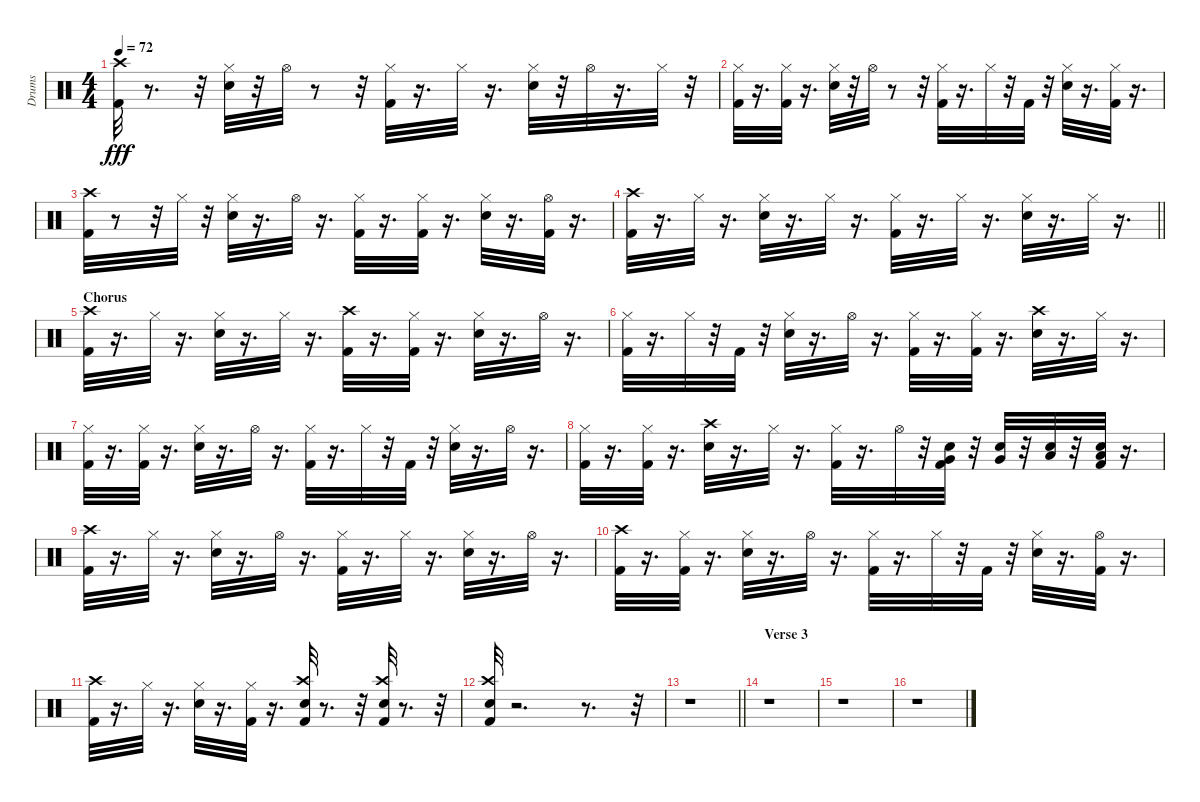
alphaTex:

\track ("Drums" "Drums") {instrument percussion}
\staff {score}
\articulation defaults
\ts (4 4)
\tempo 72
\clef neutral
\ks c
("Kick (hit) 2" "Crash high (hit)").32{dy fff} r.8{d} r.32 ("Hi-Hat (closed)" "Snare (hit) 2").32 r.32 "Hi-Hat (open)".32 r.8 r.32 ("Kick (hit) 2" "Hi-Hat (closed)").32 r.16{d} "Hi-Hat (closed)".32 r.16{d} ("Hi-Hat (closed)" "Snare (hit) 2").32 r.32 "Hi-Hat (open)".32 r.16{d} "Hi-Hat (closed)".32 r.32 |
("Kick (hit) 2" "Hi-Hat (closed)").32 r.16{d} ("Kick (hit) 2" "Hi-Hat (closed)").32 r.16{d} ("Hi-Hat (closed)" "Snare (hit) 2").32 r.32 "Hi-Hat (open)".32 r.8 r.32 ("Kick (hit) 2" "Hi-Hat (closed)").32 r.16{d} "Hi-Hat (closed)".32 r.32 "Kick (hit) 2".32 r.32 ("Hi-Hat (closed)" "Snare (hit) 2").32 r.16{d} ("Kick (hit) 2" "Hi-Hat (closed)").32 r.16{d} |
("Kick (hit) 2" "Crash high (hit)").32 r.8 r.32 "Hi-Hat (closed)".32 r.32 ("Hi-Hat (closed)" "Snare (hit) 2").32 r.16{d} "Hi-Hat (open)".32 r.16{d} ("Kick (hit) 2" "Hi-Hat (closed)").32 r.16{d} ("Kick (hit) 2" "Hi-Hat (closed)").32 r.16{d} ("Hi-Hat (closed)" "Snare (hit) 2").32 r.16{d} ("Kick (hit) 2" "Hi-Hat (open)").32 r.16{d} |
\barLineRight lightlight
("Kick (hit) 2" "Crash high (hit)").32 r.16{d} "Hi-Hat (closed)".32 r.16{d} ("Hi-Hat (closed)" "Snare (hit) 2").32 r.16{d} "Hi-Hat (closed)".32 r.16{d} ("Kick (hit) 2" "Hi-Hat (closed)").32 r.16{d} "Hi-Hat (closed)".32 r.16{d} ("Hi-Hat (closed)" "Snare (hit) 2").32 r.16{d} "Hi-Hat (closed)".32 r.16{d} |
\section ("" "Chorus")
("Kick (hit) 2" "Crash high (hit)").32 r.16{d} "Hi-Hat (closed)".32 r.16{d} ("Hi-Hat (closed)" "Snare (hit) 2").32 r.16{d} "Hi-Hat (closed)".32 r.16{d} ("Kick (hit) 2" "Crash high (hit)").32 r.16{d} ("Kick (hit) 2" "Hi-Hat (closed)").32 r.16{d} ("Hi-Hat (closed)" "Snare (hit) 2").32 r.16{d} "Hi-Hat (open)".32 r.16{d} |
("Kick (hit) 2" "Hi-Hat (closed)").32 r.16{d} "Hi-Hat (closed)".32 r.32 "Kick (hit) 2".32 r.32 ("Hi-Hat (closed)" "Snare (hit) 2").32 r.16{d} "Hi-Hat (open)".32 r.16{d} ("Kick (hit) 2" "Hi-Hat (closed)").32 r.16{d} ("Kick (hit) 2" "Hi-Hat (closed)").32 r.16{d} ("Crash high (hit)" "Snare (hit) 2").32 r.16{d} "Hi-Hat (closed)".32 r.16{d} |
("Kick (hit) 2" "Hi-Hat (closed)").32 r.16{d} ("Kick (hit) 2" "Hi-Hat (closed)").32 r.16{d} ("Hi-Hat (closed)" "Snare (hit) 2").32 r.16{d} "Hi-Hat (open)".32 r.16{d} ("Kick (hit) 2" "Hi-Hat (closed)").32 r.16{d} "Hi-Hat (closed)".32 r.32 "Kick (hit) 2".32 r.32 ("Hi-Hat (closed)" "Snare (hit) 2").32 r.16{d} "Hi-Hat (open)".32 r.16{d} |
("Kick (hit) 2" "Hi-Hat (closed)").32 r.16{d} ("Kick (hit) 2" "Hi-Hat (closed)").32 r.16{d} ("Crash high (hit)" "Snare (hit) 2").32 r.16{d} "Hi-Hat (closed)".32 r.16{d} ("Kick (hit) 2" "Hi-Hat (closed)").32 r.16{d} "Hi-Hat (open)".32 r.32 ("Kick (hit) 2" "Snare (hit) 2" "Very Low Tom (hit)").32 r.32 ("Snare (hit) 2" "Very Low Tom (hit)").32 r.32 ("Snare (hit) 2" "Low Floor Tom (hit)").32 r.32 ("Kick (hit) 2" "Snare (hit) 2" "Low Floor Tom (hit)").32 r.16{d} |
("Kick (hit) 2" "Crash high (hit)").32 r.16{d} "Hi-Hat (closed)".32 r.16{d} ("Hi-Hat (closed)" "Snare (hit) 2").32 r.16{d} "Hi-Hat (open)".32 r.16{d} ("Kick (hit) 2" "Hi-Hat (closed)").32 r.16{d} "Hi-Hat (closed)".32 r.16{d} ("Hi-Hat (closed)" "Snare (hit) 2").32 r.16{d} "Hi-Hat (open)".32 r.16{d} |
("Kick (hit) 2" "Crash high (hit)").32 r.16{d} ("Kick (hit) 2" "Hi-Hat (closed)").32 r.16{d} ("Hi-Hat (closed)" "Snare (hit) 2").32 r.16{d} "Hi-Hat (open)".32 r.16{d} ("Kick (hit) 2" "Hi-Hat (closed)").32 r.16{d} "Hi-Hat (closed)".32 r.32 "Kick (hit) 2".32 r.32 ("Hi-Hat (closed)" "Snare (hit) 2").32 r.16{d} ("Kick (hit) 2" "Hi-Hat (open)").32 r.16{d} |
("Kick (hit) 2" "Crash high (hit)").32 r.16{d} "Hi-Hat (closed)".32 r.16{d} ("Hi-Hat (closed)" "Snare (hit) 2").32 r.16{d} ("Kick (hit) 2" "Hi-Hat (closed)").32 r.16{d} ("Kick (hit) 2" "Crash high (hit)" "Snare (hit) 2").32 r.8{d} r.32 ("Kick (hit) 2" "Crash high (hit)" "Snare (hit) 2").32 r.8{d} r.32 |
("Kick (hit) 2" "Crash high (hit)" "Snare (hit) 2").32 r.2{d} r.8{d} r.32 |
\barLineRight lightlight
r.1 |
\section ("" "Verse 3")
r.1 |
r.1 |
r.1
